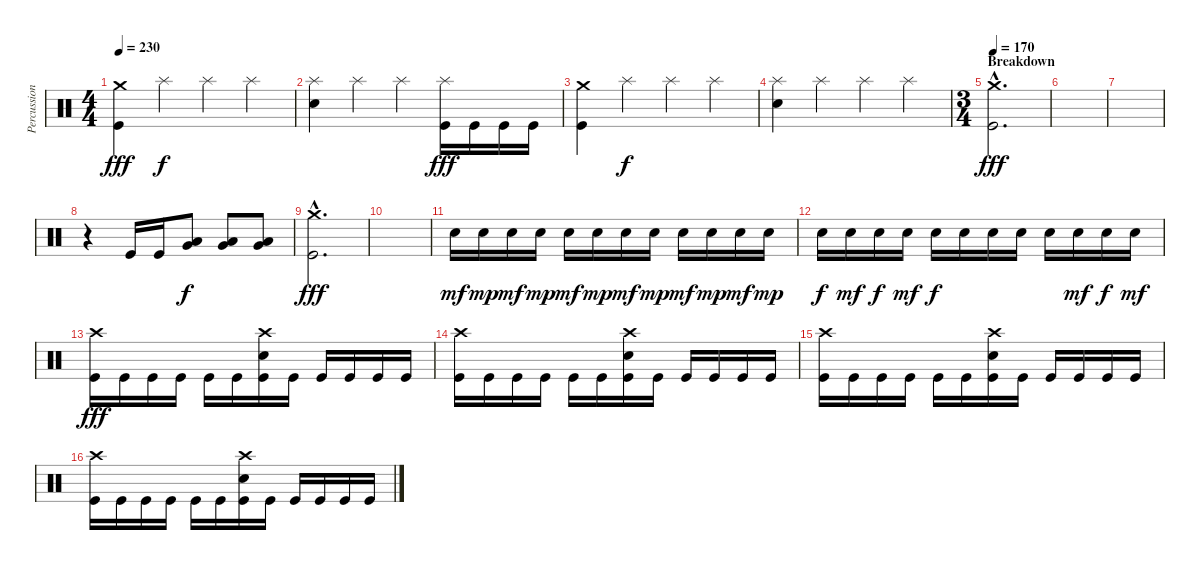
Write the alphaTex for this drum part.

\track ("Percussion" "Percussion") {instrument percussion}
\staff {score}
\articulation defaults
\ts (4 4)
\tempo 230
\clef neutral
\ks c
("Crash medium (hit)" "Kick (hit)").4{dy fff} "Splash (hit)".4{dy f} "Splash (hit)".4 "Splash (hit)".4 |
("Splash (hit)" "Electric Snare (hit)").4 "Splash (hit)".4 "Splash (hit)".4 ("Splash (hit)" "Kick (hit)").16{dy fff} "Kick (hit)".16 "Kick (hit)".16 "Kick (hit)".16 |
("Crash medium (hit)" "Kick (hit)").4 "Splash (hit)".4{dy f} "Splash (hit)".4 "Splash (hit)".4 |
("Splash (hit)" "Electric Snare (hit)").4 "Splash (hit)".4 "Splash (hit)".4 "Splash (hit)".4 |
\ts (3 4)
\section ("" "Breakdown")
\tempo 170
("Crash medium (hit)"{hac} "Kick (hit)"{hac}).2{d dy fff} |
|
|
r.4 "Kick (hit)".16 "Kick (hit)".16 ("Low Tom (hit)" "Very Low Tom (hit)").8{dy f} ("Low Tom (hit)" "Very Low Tom (hit)").8 ("Low Tom (hit)" "Very Low Tom (hit)").8 |
("Crash medium (hit)"{hac} "Kick (hit)"{hac}).2{d dy fff} |
|
"Electric Snare (hit)".16{dy mf} "Electric Snare (hit)".16{dy mp} "Electric Snare (hit)".16{dy mf} "Electric Snare (hit)".16{dy mp} "Electric Snare (hit)".16{dy mf} "Electric Snare (hit)".16{dy mp} "Electric Snare (hit)".16{dy mf} "Electric Snare (hit)".16{dy mp} "Electric Snare (hit)".16{dy mf} "Electric Snare (hit)".16{dy mp} "Electric Snare (hit)".16{dy mf} "Electric Snare (hit)".16{dy mp} |
"Electric Snare (hit)".16{dy f} "Electric Snare (hit)".16{dy mf} "Electric Snare (hit)".16{dy f} "Electric Snare (hit)".16{dy mf} "Electric Snare (hit)".16{dy f} "Electric Snare (hit)".16 "Electric Snare (hit)".16 "Electric Snare (hit)".16 "Electric Snare (hit)".16 "Electric Snare (hit)".16{dy mf} "Electric Snare (hit)".16{dy f} "Electric Snare (hit)".16{dy mf} |
("Crash high (hit)" "Kick (hit)").16{dy fff} "Kick (hit)".16 "Kick (hit)".16 "Kick (hit)".16 "Kick (hit)".16 "Kick (hit)".16 ("Crash high (hit)" "Electric Snare (hit)" "Kick (hit)").16 "Kick (hit)".16 "Kick (hit)".16 "Kick (hit)".16 "Kick (hit)".16 "Kick (hit)".16 |
("Crash high (hit)" "Kick (hit)").16 "Kick (hit)".16 "Kick (hit)".16 "Kick (hit)".16 "Kick (hit)".16 "Kick (hit)".16 ("Crash high (hit)" "Electric Snare (hit)" "Kick (hit)").16 "Kick (hit)".16 "Kick (hit)".16 "Kick (hit)".16 "Kick (hit)".16 "Kick (hit)".16 |
("Crash high (hit)" "Kick (hit)").16 "Kick (hit)".16 "Kick (hit)".16 "Kick (hit)".16 "Kick (hit)".16 "Kick (hit)".16 ("Crash high (hit)" "Electric Snare (hit)" "Kick (hit)").16 "Kick (hit)".16 "Kick (hit)".16 "Kick (hit)".16 "Kick (hit)".16 "Kick (hit)".16 |
("Crash high (hit)" "Kick (hit)").16 "Kick (hit)".16 "Kick (hit)".16 "Kick (hit)".16 "Kick (hit)".16 "Kick (hit)".16 ("Crash high (hit)" "Electric Snare (hit)" "Kick (hit)").16 "Kick (hit)".16 "Kick (hit)".16 "Kick (hit)".16 "Kick (hit)".16 "Kick (hit)".16
